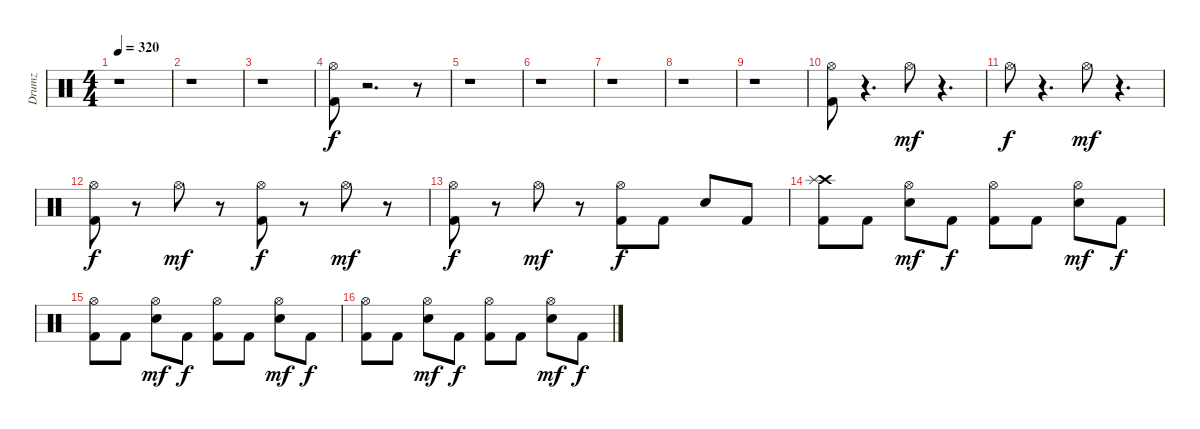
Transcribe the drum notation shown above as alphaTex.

\track ("Drumz" "Drumz") {instrument percussion}
\staff {score}
\articulation defaults
\ts (4 4)
\tempo 320
\clef neutral
\ks c
r.1{dy f} |
r.1 |
r.1 |
("Hi-Hat (open)" "Kick (hit) 2").8 r.2{d} r.8 |
r.1 |
r.1 |
r.1 |
r.1 |
r.1 |
("Hi-Hat (open)" "Kick (hit) 2").8 r.4{d} "Hi-Hat (open)".8{dy mf} r.4{d} |
"Hi-Hat (open)".8{dy f} r.4{d} "Hi-Hat (open)".8{dy mf} r.4{d} |
("Kick (hit) 2" "Hi-Hat (open)").8{dy f} r.8 "Hi-Hat (open)".8{dy mf} r.8 ("Kick (hit) 2" "Hi-Hat (open)").8{dy f} r.8 "Hi-Hat (open)".8{dy mf} r.8 |
("Hi-Hat (open)" "Kick (hit) 2").8{dy f} r.8 "Hi-Hat (open)".8{dy mf} r.8 ("Hi-Hat (open)" "Kick (hit) 2").8{dy f} "Kick (hit) 2".8 "Snare (hit) 2".8 "Kick (hit) 2".8 |
("Crash high (hit)" "Splash (hit)" "Kick (hit) 2").8 "Kick (hit) 2".8 ("Snare (hit) 2" "Hi-Hat (open)").8{dy mf} "Kick (hit) 2".8{dy f} ("Kick (hit) 2" "Hi-Hat (open)").8 "Kick (hit) 2".8 ("Snare (hit) 2" "Hi-Hat (open)").8{dy mf} "Kick (hit) 2".8{dy f} |
("Hi-Hat (open)" "Kick (hit) 2").8 "Kick (hit) 2".8 ("Snare (hit) 2" "Hi-Hat (open)").8{dy mf} "Kick (hit) 2".8{dy f} ("Kick (hit) 2" "Hi-Hat (open)").8 "Kick (hit) 2".8 ("Snare (hit) 2" "Hi-Hat (open)").8{dy mf} "Kick (hit) 2".8{dy f} |
("Hi-Hat (open)" "Kick (hit) 2").8 "Kick (hit) 2".8 ("Snare (hit) 2" "Hi-Hat (open)").8{dy mf} "Kick (hit) 2".8{dy f} ("Kick (hit) 2" "Hi-Hat (open)").8 "Kick (hit) 2".8 ("Snare (hit) 2" "Hi-Hat (open)").8{dy mf} "Kick (hit) 2".8{dy f}
